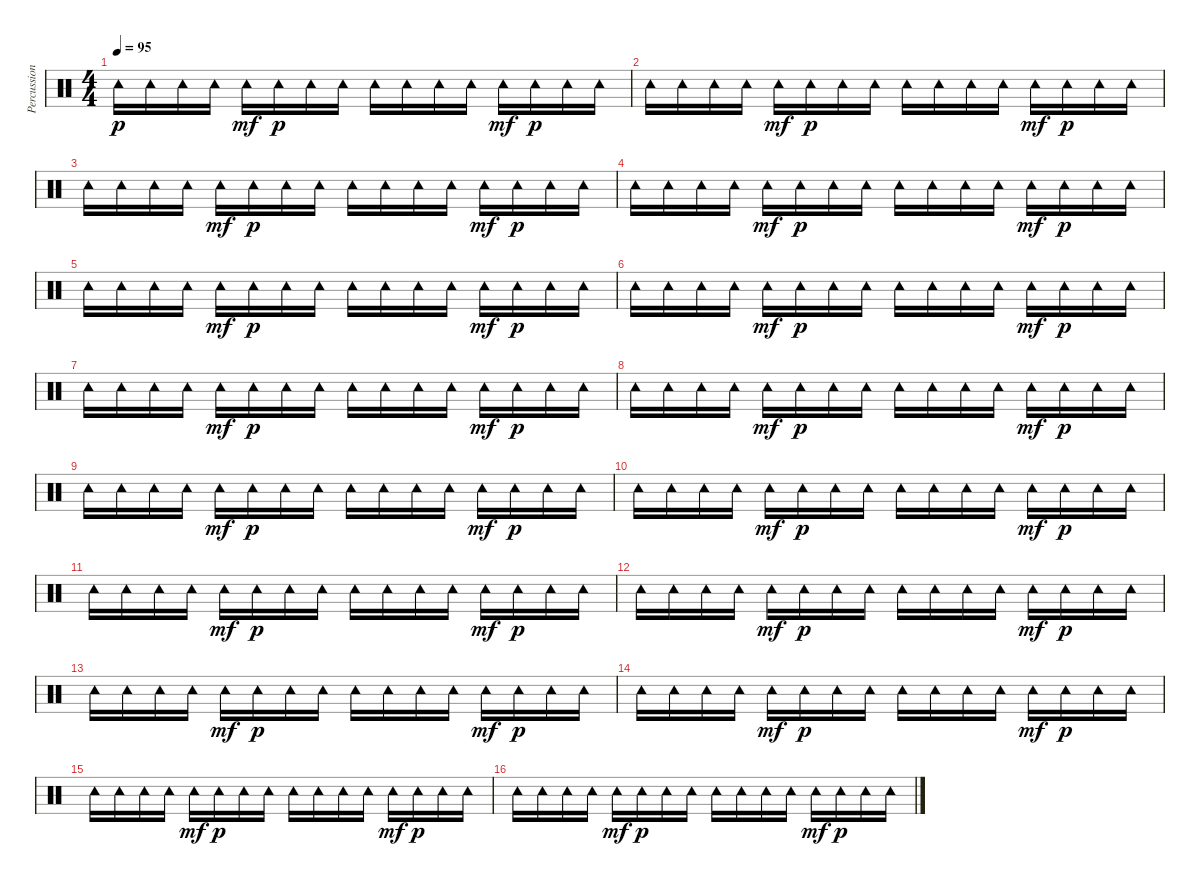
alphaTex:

\track ("Percussion" "Percussion") {instrument percussion}
\staff {score}
\articulation defaults
\ts (4 4)
\tempo 95
\clef neutral
\ks c "Tambourine (hit)".16{dy p} "Tambourine (hit)".16 "Tambourine (hit)".16 "Tambourine (hit)".16 "Tambourine (hit)".16{dy mf} "Tambourine (hit)".16{dy p} "Tambourine (hit)".16 "Tambourine (hit)".16 "Tambourine (hit)".16 "Tambourine (hit)".16 "Tambourine (hit)".16 "Tambourine (hit)".16 "Tambourine (hit)".16{dy mf} "Tambourine (hit)".16{dy p} "Tambourine (hit)".16 "Tambourine (hit)".16
|
"Tambourine (hit)".16 "Tambourine (hit)".16 "Tambourine (hit)".16 "Tambourine (hit)".16 "Tambourine (hit)".16{dy mf} "Tambourine (hit)".16{dy p} "Tambourine (hit)".16 "Tambourine (hit)".16 "Tambourine (hit)".16 "Tambourine (hit)".16 "Tambourine (hit)".16 "Tambourine (hit)".16 "Tambourine (hit)".16{dy mf} "Tambourine (hit)".16{dy p} "Tambourine (hit)".16 "Tambourine (hit)".16 |
"Tambourine (hit)".16 "Tambourine (hit)".16 "Tambourine (hit)".16 "Tambourine (hit)".16 "Tambourine (hit)".16{dy mf} "Tambourine (hit)".16{dy p} "Tambourine (hit)".16 "Tambourine (hit)".16 "Tambourine (hit)".16 "Tambourine (hit)".16 "Tambourine (hit)".16 "Tambourine (hit)".16 "Tambourine (hit)".16{dy mf} "Tambourine (hit)".16{dy p} "Tambourine (hit)".16 "Tambourine (hit)".16 |
"Tambourine (hit)".16 "Tambourine (hit)".16 "Tambourine (hit)".16 "Tambourine (hit)".16 "Tambourine (hit)".16{dy mf} "Tambourine (hit)".16{dy p} "Tambourine (hit)".16 "Tambourine (hit)".16 "Tambourine (hit)".16 "Tambourine (hit)".16 "Tambourine (hit)".16 "Tambourine (hit)".16 "Tambourine (hit)".16{dy mf} "Tambourine (hit)".16{dy p} "Tambourine (hit)".16 "Tambourine (hit)".16 |
"Tambourine (hit)".16 "Tambourine (hit)".16 "Tambourine (hit)".16 "Tambourine (hit)".16 "Tambourine (hit)".16{dy mf} "Tambourine (hit)".16{dy p} "Tambourine (hit)".16 "Tambourine (hit)".16 "Tambourine (hit)".16 "Tambourine (hit)".16 "Tambourine (hit)".16 "Tambourine (hit)".16 "Tambourine (hit)".16{dy mf} "Tambourine (hit)".16{dy p} "Tambourine (hit)".16 "Tambourine (hit)".16 |
"Tambourine (hit)".16 "Tambourine (hit)".16 "Tambourine (hit)".16 "Tambourine (hit)".16 "Tambourine (hit)".16{dy mf} "Tambourine (hit)".16{dy p} "Tambourine (hit)".16 "Tambourine (hit)".16 "Tambourine (hit)".16 "Tambourine (hit)".16 "Tambourine (hit)".16 "Tambourine (hit)".16 "Tambourine (hit)".16{dy mf} "Tambourine (hit)".16{dy p} "Tambourine (hit)".16 "Tambourine (hit)".16 |
"Tambourine (hit)".16 "Tambourine (hit)".16 "Tambourine (hit)".16 "Tambourine (hit)".16 "Tambourine (hit)".16{dy mf} "Tambourine (hit)".16{dy p} "Tambourine (hit)".16 "Tambourine (hit)".16 "Tambourine (hit)".16 "Tambourine (hit)".16 "Tambourine (hit)".16 "Tambourine (hit)".16 "Tambourine (hit)".16{dy mf} "Tambourine (hit)".16{dy p} "Tambourine (hit)".16 "Tambourine (hit)".16 |
"Tambourine (hit)".16 "Tambourine (hit)".16 "Tambourine (hit)".16 "Tambourine (hit)".16 "Tambourine (hit)".16{dy mf} "Tambourine (hit)".16{dy p} "Tambourine (hit)".16 "Tambourine (hit)".16 "Tambourine (hit)".16 "Tambourine (hit)".16 "Tambourine (hit)".16 "Tambourine (hit)".16 "Tambourine (hit)".16{dy mf} "Tambourine (hit)".16{dy p} "Tambourine (hit)".16 "Tambourine (hit)".16 |
"Tambourine (hit)".16 "Tambourine (hit)".16 "Tambourine (hit)".16 "Tambourine (hit)".16 "Tambourine (hit)".16{dy mf} "Tambourine (hit)".16{dy p} "Tambourine (hit)".16 "Tambourine (hit)".16 "Tambourine (hit)".16 "Tambourine (hit)".16 "Tambourine (hit)".16 "Tambourine (hit)".16 "Tambourine (hit)".16{dy mf} "Tambourine (hit)".16{dy p} "Tambourine (hit)".16 "Tambourine (hit)".16 |
"Tambourine (hit)".16 "Tambourine (hit)".16 "Tambourine (hit)".16 "Tambourine (hit)".16 "Tambourine (hit)".16{dy mf} "Tambourine (hit)".16{dy p} "Tambourine (hit)".16 "Tambourine (hit)".16 "Tambourine (hit)".16 "Tambourine (hit)".16 "Tambourine (hit)".16 "Tambourine (hit)".16 "Tambourine (hit)".16{dy mf} "Tambourine (hit)".16{dy p} "Tambourine (hit)".16 "Tambourine (hit)".16 |
"Tambourine (hit)".16 "Tambourine (hit)".16 "Tambourine (hit)".16 "Tambourine (hit)".16 "Tambourine (hit)".16{dy mf} "Tambourine (hit)".16{dy p} "Tambourine (hit)".16 "Tambourine (hit)".16 "Tambourine (hit)".16 "Tambourine (hit)".16 "Tambourine (hit)".16 "Tambourine (hit)".16 "Tambourine (hit)".16{dy mf} "Tambourine (hit)".16{dy p} "Tambourine (hit)".16 "Tambourine (hit)".16 |
"Tambourine (hit)".16 "Tambourine (hit)".16 "Tambourine (hit)".16 "Tambourine (hit)".16 "Tambourine (hit)".16{dy mf} "Tambourine (hit)".16{dy p} "Tambourine (hit)".16 "Tambourine (hit)".16 "Tambourine (hit)".16 "Tambourine (hit)".16 "Tambourine (hit)".16 "Tambourine (hit)".16 "Tambourine (hit)".16{dy mf} "Tambourine (hit)".16{dy p} "Tambourine (hit)".16 "Tambourine (hit)".16 |
"Tambourine (hit)".16 "Tambourine (hit)".16 "Tambourine (hit)".16 "Tambourine (hit)".16 "Tambourine (hit)".16{dy mf} "Tambourine (hit)".16{dy p} "Tambourine (hit)".16 "Tambourine (hit)".16 "Tambourine (hit)".16 "Tambourine (hit)".16 "Tambourine (hit)".16 "Tambourine (hit)".16 "Tambourine (hit)".16{dy mf} "Tambourine (hit)".16{dy p} "Tambourine (hit)".16 "Tambourine (hit)".16 |
"Tambourine (hit)".16 "Tambourine (hit)".16 "Tambourine (hit)".16 "Tambourine (hit)".16 "Tambourine (hit)".16{dy mf} "Tambourine (hit)".16{dy p} "Tambourine (hit)".16 "Tambourine (hit)".16 "Tambourine (hit)".16 "Tambourine (hit)".16 "Tambourine (hit)".16 "Tambourine (hit)".16 "Tambourine (hit)".16{dy mf} "Tambourine (hit)".16{dy p} "Tambourine (hit)".16 "Tambourine (hit)".16 |
"Tambourine (hit)".16 "Tambourine (hit)".16 "Tambourine (hit)".16 "Tambourine (hit)".16 "Tambourine (hit)".16{dy mf} "Tambourine (hit)".16{dy p} "Tambourine (hit)".16 "Tambourine (hit)".16 "Tambourine (hit)".16 "Tambourine (hit)".16 "Tambourine (hit)".16 "Tambourine (hit)".16 "Tambourine (hit)".16{dy mf} "Tambourine (hit)".16{dy p} "Tambourine (hit)".16 "Tambourine (hit)".16 |
"Tambourine (hit)".16 "Tambourine (hit)".16 "Tambourine (hit)".16 "Tambourine (hit)".16 "Tambourine (hit)".16{dy mf} "Tambourine (hit)".16{dy p} "Tambourine (hit)".16 "Tambourine (hit)".16 "Tambourine (hit)".16 "Tambourine (hit)".16 "Tambourine (hit)".16 "Tambourine (hit)".16 "Tambourine (hit)".16{dy mf} "Tambourine (hit)".16{dy p} "Tambourine (hit)".16 "Tambourine (hit)".16
